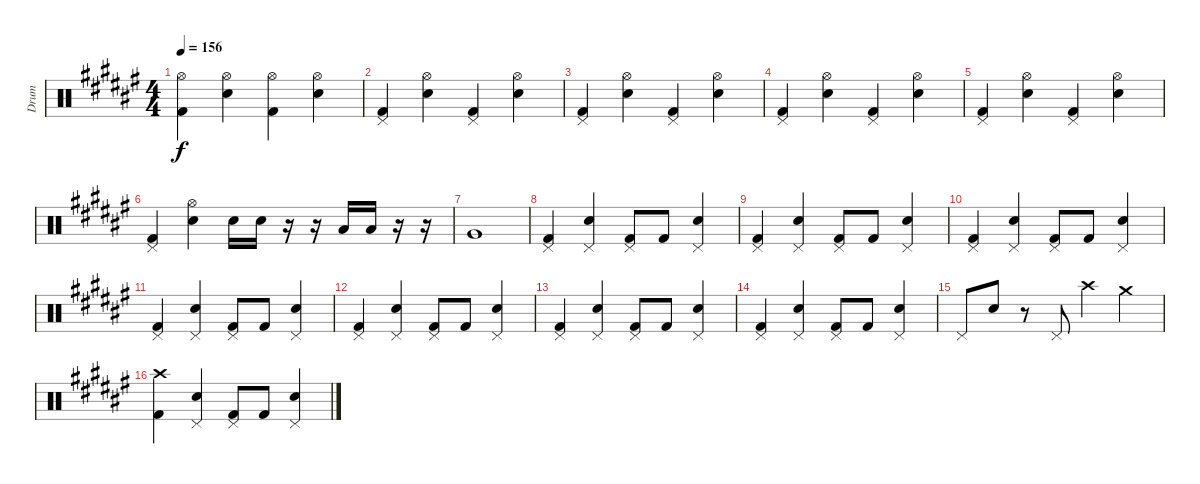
\track ("Drum" "Drum") {instrument percussion}
\staff {score}
\articulation defaults
\ts (4 4)
\tempo 156
\clef neutral
\ks f#
("Hi-Hat (open)" "Kick (hit) 2").4{dy f} ("Hi-Hat (open)" "Electric Snare (hit)").4 ("Hi-Hat (open)" "Kick (hit) 2").4 ("Hi-Hat (open)" "Electric Snare (hit)").4 |
("Pedal Hi-Hat (hit)" "Kick (hit) 2").4 ("Hi-Hat (open)" "Electric Snare (hit)").4 ("Pedal Hi-Hat (hit)" "Kick (hit) 2").4 ("Hi-Hat (open)" "Electric Snare (hit)").4 |
("Pedal Hi-Hat (hit)" "Kick (hit) 2").4 ("Hi-Hat (open)" "Electric Snare (hit)").4 ("Pedal Hi-Hat (hit)" "Kick (hit) 2").4 ("Hi-Hat (open)" "Electric Snare (hit)").4 |
("Pedal Hi-Hat (hit)" "Kick (hit) 2").4 ("Hi-Hat (open)" "Electric Snare (hit)").4 ("Pedal Hi-Hat (hit)" "Kick (hit) 2").4 ("Hi-Hat (open)" "Electric Snare (hit)").4 |
("Pedal Hi-Hat (hit)" "Kick (hit) 2").4 ("Hi-Hat (open)" "Electric Snare (hit)").4 ("Pedal Hi-Hat (hit)" "Kick (hit) 2").4 ("Hi-Hat (open)" "Electric Snare (hit)").4 |
("Pedal Hi-Hat (hit)" "Kick (hit) 2").4 ("Hi-Hat (open)" "Electric Snare (hit)").4 "Electric Snare (hit)".16 "Electric Snare (hit)".16 r.16 r.16 "Low Tom (hit)".16 "Low Tom (hit)".16 r.16 r.16 |
"Very Low Tom (hit)".1 |
("Pedal Hi-Hat (hit)" "Kick (hit) 2").4 ("Pedal Hi-Hat (hit)" "Electric Snare (hit)").4 ("Pedal Hi-Hat (hit)" "Kick (hit) 2").8 "Kick (hit) 2".8 ("Pedal Hi-Hat (hit)" "Electric Snare (hit)").4 |
("Pedal Hi-Hat (hit)" "Kick (hit) 2").4 ("Pedal Hi-Hat (hit)" "Electric Snare (hit)").4 ("Pedal Hi-Hat (hit)" "Kick (hit) 2").8 "Kick (hit) 2".8 ("Pedal Hi-Hat (hit)" "Electric Snare (hit)").4 |
("Pedal Hi-Hat (hit)" "Kick (hit) 2").4 ("Pedal Hi-Hat (hit)" "Electric Snare (hit)").4 ("Pedal Hi-Hat (hit)" "Kick (hit) 2").8 "Kick (hit) 2".8 ("Pedal Hi-Hat (hit)" "Electric Snare (hit)").4 |
("Pedal Hi-Hat (hit)" "Kick (hit) 2").4 ("Pedal Hi-Hat (hit)" "Electric Snare (hit)").4 ("Pedal Hi-Hat (hit)" "Kick (hit) 2").8 "Kick (hit) 2".8 ("Pedal Hi-Hat (hit)" "Electric Snare (hit)").4 |
("Pedal Hi-Hat (hit)" "Kick (hit) 2").4 ("Pedal Hi-Hat (hit)" "Electric Snare (hit)").4 ("Pedal Hi-Hat (hit)" "Kick (hit) 2").8 "Kick (hit) 2".8 ("Pedal Hi-Hat (hit)" "Electric Snare (hit)").4 |
("Pedal Hi-Hat (hit)" "Kick (hit) 2").4 ("Pedal Hi-Hat (hit)" "Electric Snare (hit)").4 ("Pedal Hi-Hat (hit)" "Kick (hit) 2").8 "Kick (hit) 2".8 ("Pedal Hi-Hat (hit)" "Electric Snare (hit)").4 |
("Pedal Hi-Hat (hit)" "Kick (hit) 2").4 ("Pedal Hi-Hat (hit)" "Electric Snare (hit)").4 ("Pedal Hi-Hat (hit)" "Kick (hit) 2").8 "Kick (hit) 2".8 ("Pedal Hi-Hat (hit)" "Electric Snare (hit)").4 |
"Pedal Hi-Hat (hit)".8 "Electric Snare (hit)".8 r.8 "Pedal Hi-Hat (hit)".8 "Crash high (hit)".4 "Crash medium (hit)".4 |
("Crash high (hit)" "Kick (hit) 2").4 ("Pedal Hi-Hat (hit)" "Electric Snare (hit)").4 ("Pedal Hi-Hat (hit)" "Kick (hit) 2").8 "Kick (hit) 2".8 ("Pedal Hi-Hat (hit)" "Electric Snare (hit)").4
